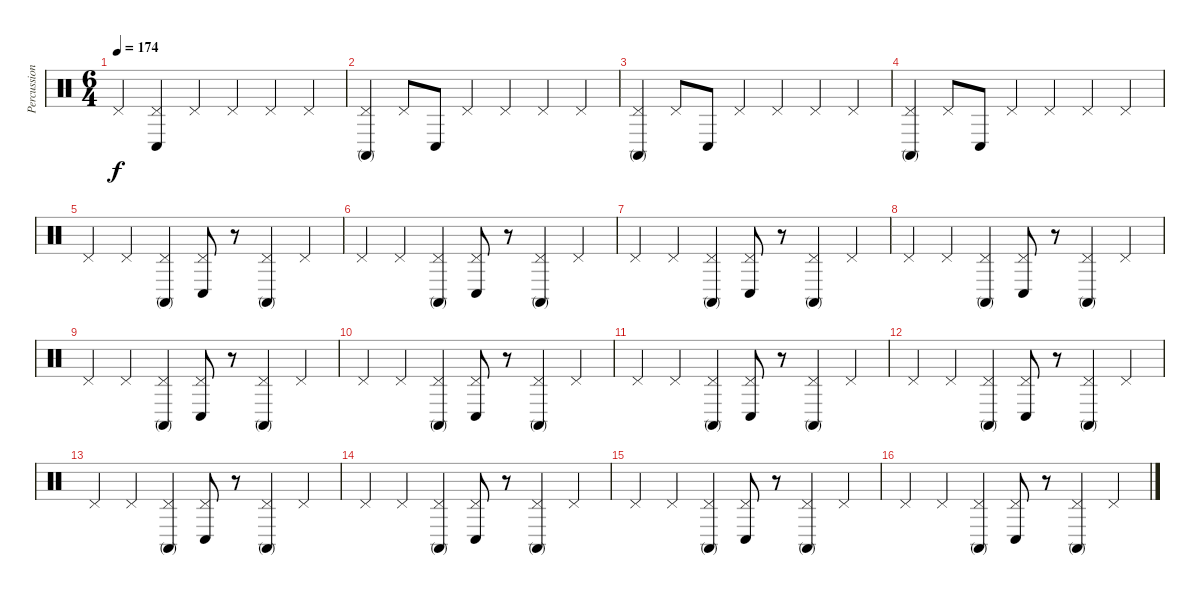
\track ("Percussion" "Percussion") {instrument percussion}
\staff {score}
\articulation defaults
\ts (6 4)
\tempo 174
\clef neutral
\ks c "Pedal Hi-Hat (hit)".4{dy f}
("Pedal Hi-Hat (hit)" "Conga low (hit)").4 "Pedal Hi-Hat (hit)".4 "Pedal Hi-Hat (hit)".4 "Pedal Hi-Hat (hit)".4 "Pedal Hi-Hat (hit)".4 |
("Pedal Hi-Hat (hit)" "Conga high (mute)").4 "Pedal Hi-Hat (hit)".8 "Conga low (hit)".8 "Pedal Hi-Hat (hit)".4 "Pedal Hi-Hat (hit)".4 "Pedal Hi-Hat (hit)".4 "Pedal Hi-Hat (hit)".4 |
("Pedal Hi-Hat (hit)" "Conga high (mute)").4 "Pedal Hi-Hat (hit)".8 "Conga low (hit)".8 "Pedal Hi-Hat (hit)".4 "Pedal Hi-Hat (hit)".4 "Pedal Hi-Hat (hit)".4 "Pedal Hi-Hat (hit)".4 |
("Pedal Hi-Hat (hit)" "Conga high (mute)").4 "Pedal Hi-Hat (hit)".8 "Conga low (hit)".8 "Pedal Hi-Hat (hit)".4 "Pedal Hi-Hat (hit)".4 "Pedal Hi-Hat (hit)".4 "Pedal Hi-Hat (hit)".4 |
"Pedal Hi-Hat (hit)".4 "Pedal Hi-Hat (hit)".4 ("Pedal Hi-Hat (hit)" "Conga high (mute)").4 ("Pedal Hi-Hat (hit)" "Conga low (hit)").8 r.8 ("Pedal Hi-Hat (hit)" "Conga high (mute)").4 "Pedal Hi-Hat (hit)".4 |
"Pedal Hi-Hat (hit)".4 "Pedal Hi-Hat (hit)".4 ("Pedal Hi-Hat (hit)" "Conga high (mute)").4 ("Pedal Hi-Hat (hit)" "Conga low (hit)").8 r.8 ("Pedal Hi-Hat (hit)" "Conga high (mute)").4 "Pedal Hi-Hat (hit)".4 |
"Pedal Hi-Hat (hit)".4 "Pedal Hi-Hat (hit)".4 ("Pedal Hi-Hat (hit)" "Conga high (mute)").4 ("Pedal Hi-Hat (hit)" "Conga low (hit)").8 r.8 ("Pedal Hi-Hat (hit)" "Conga high (mute)").4 "Pedal Hi-Hat (hit)".4 |
"Pedal Hi-Hat (hit)".4 "Pedal Hi-Hat (hit)".4 ("Pedal Hi-Hat (hit)" "Conga high (mute)").4 ("Pedal Hi-Hat (hit)" "Conga low (hit)").8 r.8 ("Pedal Hi-Hat (hit)" "Conga high (mute)").4 "Pedal Hi-Hat (hit)".4 |
"Pedal Hi-Hat (hit)".4 "Pedal Hi-Hat (hit)".4 ("Pedal Hi-Hat (hit)" "Conga high (mute)").4 ("Pedal Hi-Hat (hit)" "Conga low (hit)").8 r.8 ("Pedal Hi-Hat (hit)" "Conga high (mute)").4 "Pedal Hi-Hat (hit)".4 |
"Pedal Hi-Hat (hit)".4 "Pedal Hi-Hat (hit)".4 ("Pedal Hi-Hat (hit)" "Conga high (mute)").4 ("Pedal Hi-Hat (hit)" "Conga low (hit)").8 r.8 ("Pedal Hi-Hat (hit)" "Conga high (mute)").4 "Pedal Hi-Hat (hit)".4 |
"Pedal Hi-Hat (hit)".4 "Pedal Hi-Hat (hit)".4 ("Pedal Hi-Hat (hit)" "Conga high (mute)").4 ("Pedal Hi-Hat (hit)" "Conga low (hit)").8 r.8 ("Pedal Hi-Hat (hit)" "Conga high (mute)").4 "Pedal Hi-Hat (hit)".4 |
"Pedal Hi-Hat (hit)".4 "Pedal Hi-Hat (hit)".4 ("Pedal Hi-Hat (hit)" "Conga high (mute)").4 ("Pedal Hi-Hat (hit)" "Conga low (hit)").8 r.8 ("Pedal Hi-Hat (hit)" "Conga high (mute)").4 "Pedal Hi-Hat (hit)".4 |
"Pedal Hi-Hat (hit)".4 "Pedal Hi-Hat (hit)".4 ("Pedal Hi-Hat (hit)" "Conga high (mute)").4 ("Pedal Hi-Hat (hit)" "Conga low (hit)").8 r.8 ("Pedal Hi-Hat (hit)" "Conga high (mute)").4 "Pedal Hi-Hat (hit)".4 |
"Pedal Hi-Hat (hit)".4 "Pedal Hi-Hat (hit)".4 ("Pedal Hi-Hat (hit)" "Conga high (mute)").4 ("Pedal Hi-Hat (hit)" "Conga low (hit)").8 r.8 ("Pedal Hi-Hat (hit)" "Conga high (mute)").4 "Pedal Hi-Hat (hit)".4 |
"Pedal Hi-Hat (hit)".4 "Pedal Hi-Hat (hit)".4 ("Pedal Hi-Hat (hit)" "Conga high (mute)").4 ("Pedal Hi-Hat (hit)" "Conga low (hit)").8 r.8 ("Pedal Hi-Hat (hit)" "Conga high (mute)").4 "Pedal Hi-Hat (hit)".4 |
"Pedal Hi-Hat (hit)".4 "Pedal Hi-Hat (hit)".4 ("Pedal Hi-Hat (hit)" "Conga high (mute)").4 ("Pedal Hi-Hat (hit)" "Conga low (hit)").8 r.8 ("Pedal Hi-Hat (hit)" "Conga high (mute)").4 "Pedal Hi-Hat (hit)".4
